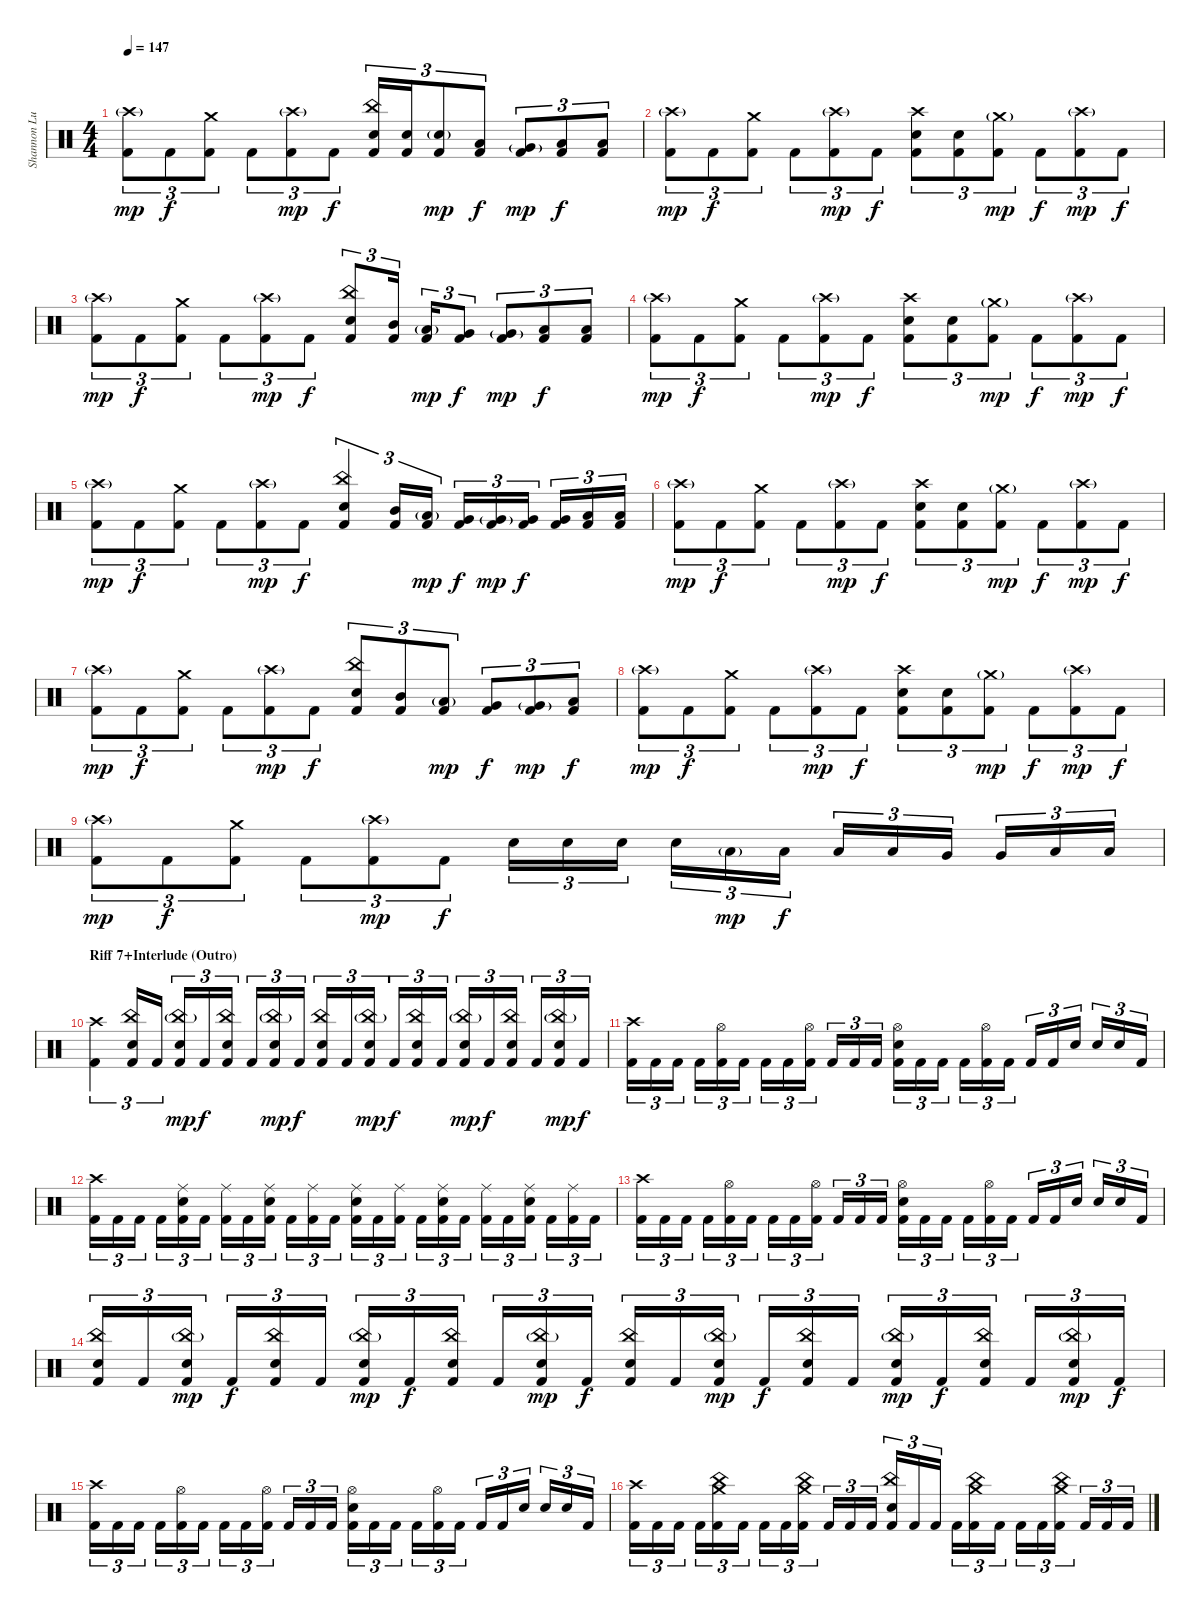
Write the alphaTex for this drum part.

\track ("Shannon Lucas (Drums)" "Shannon Lu") {instrument percussion}
\staff {score}
\articulation defaults
\ts (4 4)
\tempo 147
\clef neutral
\ks c
("Crash high (hit)"{g} "Kick (hit) 2").8{tu (3 2) dy mp} "Kick (hit) 2".8{tu (3 2) dy f} ("Crash medium (hit)" "Kick (hit) 2").8{tu (3 2)} "Kick (hit) 2".8{tu (3 2)} ("Crash high (hit)"{g} "Kick (hit) 2").8{tu (3 2) dy mp} "Kick (hit) 2".8{tu (3 2) dy f} ("China (hit)" "Snare (hit) 2" "Kick (hit) 2").16{tu (3 2)} ("Snare (hit) 2" "Kick (hit) 2").16{tu (3 2)} ("Snare (hit) 2"{g} "Kick (hit) 2").8{tu (3 2) dy mp} ("Low Tom (hit)" "Kick (hit) 2").8{tu (3 2) dy f} ("Very Low Tom (hit)"{g} "Kick (hit) 2").8{tu (3 2) dy mp} ("Low Floor Tom (hit)" "Kick (hit) 2").8{tu (3 2) dy f} ("Low Floor Tom (hit)" "Kick (hit) 2").8{tu (3 2)} |
("Crash high (hit)"{g} "Kick (hit) 2").8{tu (3 2) dy mp} "Kick (hit) 2".8{tu (3 2) dy f} ("Crash medium (hit)" "Kick (hit) 2").8{tu (3 2)} "Kick (hit) 2".8{tu (3 2)} ("Crash high (hit)"{g} "Kick (hit) 2").8{tu (3 2) dy mp} "Kick (hit) 2".8{tu (3 2) dy f} ("Crash high (hit)" "Snare (hit) 2" "Kick (hit) 2").8{tu (3 2)} ("Snare (hit) 2" "Kick (hit) 2").8{tu (3 2)} ("Crash medium (hit)"{g} "Kick (hit) 2").8{tu (3 2) dy mp} "Kick (hit) 2".8{tu (3 2) dy f} ("Crash high (hit)"{g} "Kick (hit) 2").8{tu (3 2) dy mp} "Kick (hit) 2".8{tu (3 2) dy f} |
("Crash high (hit)"{g} "Kick (hit) 2").8{tu (3 2) dy mp} "Kick (hit) 2".8{tu (3 2) dy f} ("Crash medium (hit)" "Kick (hit) 2").8{tu (3 2)} "Kick (hit) 2".8{tu (3 2)} ("Crash high (hit)"{g} "Kick (hit) 2").8{tu (3 2) dy mp} "Kick (hit) 2".8{tu (3 2) dy f} ("China (hit)" "Snare (hit) 2" "Kick (hit) 2").8{tu (3 2)} ("Mid Tom (hit)" "Kick (hit) 2").16{tu (3 2)} ("Low Tom (hit)"{g} "Kick (hit) 2").16{tu (3 2) dy mp} ("Very Low Tom (hit)" "Kick (hit) 2").8{tu (3 2) dy f} ("Very Low Tom (hit)"{g} "Kick (hit) 2").8{tu (3 2) dy mp} ("Low Floor Tom (hit)" "Kick (hit) 2").8{tu (3 2) dy f} ("Low Floor Tom (hit)" "Kick (hit) 2").8{tu (3 2)} |
("Crash high (hit)"{g} "Kick (hit) 2").8{tu (3 2) dy mp} "Kick (hit) 2".8{tu (3 2) dy f} ("Crash medium (hit)" "Kick (hit) 2").8{tu (3 2)} "Kick (hit) 2".8{tu (3 2)} ("Crash high (hit)"{g} "Kick (hit) 2").8{tu (3 2) dy mp} "Kick (hit) 2".8{tu (3 2) dy f} ("Crash high (hit)" "Snare (hit) 2" "Kick (hit) 2").8{tu (3 2)} ("Snare (hit) 2" "Kick (hit) 2").8{tu (3 2)} ("Crash medium (hit)"{g} "Kick (hit) 2").8{tu (3 2) dy mp} "Kick (hit) 2".8{tu (3 2) dy f} ("Crash high (hit)"{g} "Kick (hit) 2").8{tu (3 2) dy mp} "Kick (hit) 2".8{tu (3 2) dy f} |
("Crash high (hit)"{g} "Kick (hit) 2").8{tu (3 2) dy mp} "Kick (hit) 2".8{tu (3 2) dy f} ("Crash medium (hit)" "Kick (hit) 2").8{tu (3 2)} "Kick (hit) 2".8{tu (3 2)} ("Crash high (hit)"{g} "Kick (hit) 2").8{tu (3 2) dy mp} "Kick (hit) 2".8{tu (3 2) dy f} ("China (hit)" "Snare (hit) 2" "Kick (hit) 2").4{tu (3 2)} ("Mid Tom (hit)" "Kick (hit) 2").16{tu (3 2)} ("Low Tom (hit)"{g} "Kick (hit) 2").16{tu (3 2) dy mp} ("Very Low Tom (hit)" "Kick (hit) 2").16{tu (3 2) dy f} ("Very Low Tom (hit)"{g} "Kick (hit) 2").16{tu (3 2) dy mp} ("Very Low Tom (hit)" "Kick (hit) 2").16{tu (3 2) dy f} ("Very Low Tom (hit)" "Kick (hit) 2").16{tu (3 2)} ("Low Floor Tom (hit)" "Kick (hit) 2").16{tu (3 2)} ("Low Floor Tom (hit)" "Kick (hit) 2").16{tu (3 2)} |
("Crash high (hit)"{g} "Kick (hit) 2").8{tu (3 2) dy mp} "Kick (hit) 2".8{tu (3 2) dy f} ("Crash medium (hit)" "Kick (hit) 2").8{tu (3 2)} "Kick (hit) 2".8{tu (3 2)} ("Crash high (hit)"{g} "Kick (hit) 2").8{tu (3 2) dy mp} "Kick (hit) 2".8{tu (3 2) dy f} ("Crash high (hit)" "Snare (hit) 2" "Kick (hit) 2").8{tu (3 2)} ("Snare (hit) 2" "Kick (hit) 2").8{tu (3 2)} ("Crash medium (hit)"{g} "Kick (hit) 2").8{tu (3 2) dy mp} "Kick (hit) 2".8{tu (3 2) dy f} ("Crash high (hit)"{g} "Kick (hit) 2").8{tu (3 2) dy mp} "Kick (hit) 2".8{tu (3 2) dy f} |
("Crash high (hit)"{g} "Kick (hit) 2").8{tu (3 2) dy mp} "Kick (hit) 2".8{tu (3 2) dy f} ("Crash medium (hit)" "Kick (hit) 2").8{tu (3 2)} "Kick (hit) 2".8{tu (3 2)} ("Crash high (hit)"{g} "Kick (hit) 2").8{tu (3 2) dy mp} "Kick (hit) 2".8{tu (3 2) dy f} ("China (hit)" "Snare (hit) 2" "Kick (hit) 2").8{tu (3 2)} ("Mid Tom (hit)" "Kick (hit) 2").8{tu (3 2)} ("Low Tom (hit)"{g} "Kick (hit) 2").8{tu (3 2) dy mp} ("Very Low Tom (hit)" "Kick (hit) 2").8{tu (3 2) dy f} ("Very Low Tom (hit)"{g} "Kick (hit) 2").8{tu (3 2) dy mp} ("Low Floor Tom (hit)" "Kick (hit) 2").8{tu (3 2) dy f} |
("Crash high (hit)"{g} "Kick (hit) 2").8{tu (3 2) dy mp} "Kick (hit) 2".8{tu (3 2) dy f} ("Crash medium (hit)" "Kick (hit) 2").8{tu (3 2)} "Kick (hit) 2".8{tu (3 2)} ("Crash high (hit)"{g} "Kick (hit) 2").8{tu (3 2) dy mp} "Kick (hit) 2".8{tu (3 2) dy f} ("Crash high (hit)" "Snare (hit) 2" "Kick (hit) 2").8{tu (3 2)} ("Snare (hit) 2" "Kick (hit) 2").8{tu (3 2)} ("Crash medium (hit)"{g} "Kick (hit) 2").8{tu (3 2) dy mp} "Kick (hit) 2".8{tu (3 2) dy f} ("Crash high (hit)"{g} "Kick (hit) 2").8{tu (3 2) dy mp} "Kick (hit) 2".8{tu (3 2) dy f} |
("Crash high (hit)"{g} "Kick (hit) 2").8{tu (3 2) dy mp} "Kick (hit) 2".8{tu (3 2) dy f} ("Crash medium (hit)" "Kick (hit) 2").8{tu (3 2)} "Kick (hit) 2".8{tu (3 2)} ("Crash high (hit)"{g} "Kick (hit) 2").8{tu (3 2) dy mp} "Kick (hit) 2".8{tu (3 2) dy f} "Snare (hit) 2".16{tu (3 2)} "Snare (hit) 2".16{tu (3 2)} "Snare (hit) 2".16{tu (3 2)} "Snare (hit) 2".16{tu (3 2)} "Low Tom (hit)"{g}.16{tu (3 2) dy mp} "Low Tom (hit)".16{tu (3 2) dy f} "Low Tom (hit)".16{tu (3 2)} "Low Tom (hit)".16{tu (3 2)} "Very Low Tom (hit)".16{tu (3 2)} "Very Low Tom (hit)".16{tu (3 2)} "Low Floor Tom (hit)".16{tu (3 2)} "Low Floor Tom (hit)".16{tu (3 2)} |
\section ("" "Riff 7+Interlude (Outro)")
("Crash high (hit)" "Kick (hit) 2").4{tu (3 2)} ("China (hit)" "Snare (hit) 2" "Kick (hit) 2").16{tu (3 2)} "Kick (hit) 2".16{tu (3 2)} ("China (hit)"{g} "Snare (hit) 2" "Kick (hit) 2").16{tu (3 2) dy mp} "Kick (hit) 2".16{tu (3 2) dy f} ("China (hit)" "Snare (hit) 2" "Kick (hit) 2").16{tu (3 2)} "Kick (hit) 2".16{tu (3 2)} ("China (hit)"{g} "Snare (hit) 2" "Kick (hit) 2").16{tu (3 2) dy mp} "Kick (hit) 2".16{tu (3 2) dy f} ("China (hit)" "Snare (hit) 2" "Kick (hit) 2").16{tu (3 2)} "Kick (hit) 2".16{tu (3 2)} ("China (hit)"{g} "Snare (hit) 2" "Kick (hit) 2").16{tu (3 2) dy mp} "Kick (hit) 2".16{tu (3 2) dy f} ("China (hit)" "Snare (hit) 2" "Kick (hit) 2").16{tu (3 2)} "Kick (hit) 2".16{tu (3 2)} ("China (hit)"{g} "Snare (hit) 2" "Kick (hit) 2").16{tu (3 2) dy mp} "Kick (hit) 2".16{tu (3 2) dy f} ("China (hit)" "Snare (hit) 2" "Kick (hit) 2").16{tu (3 2)} "Kick (hit) 2".16{tu (3 2)} ("China (hit)"{g} "Snare (hit) 2" "Kick (hit) 2").16{tu (3 2) dy mp} "Kick (hit) 2".16{tu (3 2) dy f} |
("Crash high (hit)" "Kick (hit) 2").16{tu (3 2)} "Kick (hit) 2".16{tu (3 2)} "Kick (hit) 2".16{tu (3 2)} "Kick (hit) 2".16{tu (3 2)} ("Hi-Hat (open)" "Kick (hit) 2").16{tu (3 2)} "Kick (hit) 2".16{tu (3 2)} "Kick (hit) 2".16{tu (3 2)} "Kick (hit) 2".16{tu (3 2)} ("Hi-Hat (open)" "Kick (hit) 2").16{tu (3 2)} "Kick (hit) 2".16{tu (3 2)} "Kick (hit) 2".16{tu (3 2)} "Kick (hit) 2".16{tu (3 2)} ("Hi-Hat (open)" "Snare (hit) 2" "Kick (hit) 2").16{tu (3 2)} "Kick (hit) 2".16{tu (3 2)} "Kick (hit) 2".16{tu (3 2)} "Kick (hit) 2".16{tu (3 2)} ("Hi-Hat (open)" "Kick (hit) 2").16{tu (3 2)} "Kick (hit) 2".16{tu (3 2)} "Kick (hit) 2".16{tu (3 2)} "Kick (hit) 2".16{tu (3 2)} "Snare (hit) 2".16{tu (3 2)} "Snare (hit) 2".16{tu (3 2)} "Snare (hit) 2".16{tu (3 2)} "Kick (hit) 2".16{tu (3 2)} |
("Crash high (hit)" "Kick (hit) 2").16{tu (3 2)} "Kick (hit) 2".16{tu (3 2)} "Kick (hit) 2".16{tu (3 2)} "Kick (hit) 2".16{tu (3 2)} ("Ride (middle)" "Snare (hit) 2" "Kick (hit) 2").16{tu (3 2)} "Kick (hit) 2".16{tu (3 2)} ("Ride (middle)" "Kick (hit) 2").16{tu (3 2)} "Kick (hit) 2".16{tu (3 2)} ("Ride (middle)" "Snare (hit) 2" "Kick (hit) 2").16{tu (3 2)} "Kick (hit) 2".16{tu (3 2)} ("Ride (middle)" "Kick (hit) 2").16{tu (3 2)} "Kick (hit) 2".16{tu (3 2)} ("Ride (middle)" "Snare (hit) 2" "Kick (hit) 2").16{tu (3 2)} "Kick (hit) 2".16{tu (3 2)} ("Ride (middle)" "Kick (hit) 2").16{tu (3 2)} "Kick (hit) 2".16{tu (3 2)} ("Ride (middle)" "Snare (hit) 2" "Kick (hit) 2").16{tu (3 2)} "Kick (hit) 2".16{tu (3 2)} ("Ride (middle)" "Kick (hit) 2").16{tu (3 2)} "Kick (hit) 2".16{tu (3 2)} ("Ride (middle)" "Snare (hit) 2" "Kick (hit) 2").16{tu (3 2)} "Kick (hit) 2".16{tu (3 2)} ("Ride (middle)" "Kick (hit) 2").16{tu (3 2)} "Kick (hit) 2".16{tu (3 2)} |
("Crash high (hit)" "Kick (hit) 2").16{tu (3 2)} "Kick (hit) 2".16{tu (3 2)} "Kick (hit) 2".16{tu (3 2)} "Kick (hit) 2".16{tu (3 2)} ("Hi-Hat (open)" "Kick (hit) 2").16{tu (3 2)} "Kick (hit) 2".16{tu (3 2)} "Kick (hit) 2".16{tu (3 2)} "Kick (hit) 2".16{tu (3 2)} ("Hi-Hat (open)" "Kick (hit) 2").16{tu (3 2)} "Kick (hit) 2".16{tu (3 2)} "Kick (hit) 2".16{tu (3 2)} "Kick (hit) 2".16{tu (3 2)} ("Hi-Hat (open)" "Snare (hit) 2" "Kick (hit) 2").16{tu (3 2)} "Kick (hit) 2".16{tu (3 2)} "Kick (hit) 2".16{tu (3 2)} "Kick (hit) 2".16{tu (3 2)} ("Hi-Hat (open)" "Kick (hit) 2").16{tu (3 2)} "Kick (hit) 2".16{tu (3 2)} "Kick (hit) 2".16{tu (3 2)} "Kick (hit) 2".16{tu (3 2)} "Snare (hit) 2".16{tu (3 2)} "Snare (hit) 2".16{tu (3 2)} "Snare (hit) 2".16{tu (3 2)} "Kick (hit) 2".16{tu (3 2)} |
("China (hit)" "Snare (hit) 2" "Kick (hit) 2").16{tu (3 2)} "Kick (hit) 2".16{tu (3 2)} ("China (hit)"{g} "Snare (hit) 2" "Kick (hit) 2").16{tu (3 2) dy mp} "Kick (hit) 2".16{tu (3 2) dy f} ("China (hit)" "Snare (hit) 2" "Kick (hit) 2").16{tu (3 2)} "Kick (hit) 2".16{tu (3 2)} ("China (hit)"{g} "Snare (hit) 2" "Kick (hit) 2").16{tu (3 2) dy mp} "Kick (hit) 2".16{tu (3 2) dy f} ("China (hit)" "Snare (hit) 2" "Kick (hit) 2").16{tu (3 2)} "Kick (hit) 2".16{tu (3 2)} ("China (hit)"{g} "Snare (hit) 2" "Kick (hit) 2").16{tu (3 2) dy mp} "Kick (hit) 2".16{tu (3 2) dy f} ("China (hit)" "Snare (hit) 2" "Kick (hit) 2").16{tu (3 2)} "Kick (hit) 2".16{tu (3 2)} ("China (hit)"{g} "Snare (hit) 2" "Kick (hit) 2").16{tu (3 2) dy mp} "Kick (hit) 2".16{tu (3 2) dy f} ("China (hit)" "Snare (hit) 2" "Kick (hit) 2").16{tu (3 2)} "Kick (hit) 2".16{tu (3 2)} ("China (hit)"{g} "Snare (hit) 2" "Kick (hit) 2").16{tu (3 2) dy mp} "Kick (hit) 2".16{tu (3 2) dy f} ("China (hit)" "Snare (hit) 2" "Kick (hit) 2").16{tu (3 2)} "Kick (hit) 2".16{tu (3 2)} ("China (hit)"{g} "Snare (hit) 2" "Kick (hit) 2").16{tu (3 2) dy mp} "Kick (hit) 2".16{tu (3 2) dy f} |
("Crash high (hit)" "Kick (hit) 2").16{tu (3 2)} "Kick (hit) 2".16{tu (3 2)} "Kick (hit) 2".16{tu (3 2)} "Kick (hit) 2".16{tu (3 2)} ("Hi-Hat (open)" "Kick (hit) 2").16{tu (3 2)} "Kick (hit) 2".16{tu (3 2)} "Kick (hit) 2".16{tu (3 2)} "Kick (hit) 2".16{tu (3 2)} ("Hi-Hat (open)" "Kick (hit) 2").16{tu (3 2)} "Kick (hit) 2".16{tu (3 2)} "Kick (hit) 2".16{tu (3 2)} "Kick (hit) 2".16{tu (3 2)} ("Hi-Hat (open)" "Snare (hit) 2" "Kick (hit) 2").16{tu (3 2)} "Kick (hit) 2".16{tu (3 2)} "Kick (hit) 2".16{tu (3 2)} "Kick (hit) 2".16{tu (3 2)} ("Hi-Hat (open)" "Kick (hit) 2").16{tu (3 2)} "Kick (hit) 2".16{tu (3 2)} "Kick (hit) 2".16{tu (3 2)} "Kick (hit) 2".16{tu (3 2)} "Snare (hit) 2".16{tu (3 2)} "Snare (hit) 2".16{tu (3 2)} "Snare (hit) 2".16{tu (3 2)} "Kick (hit) 2".16{tu (3 2)} |
("Crash high (hit)" "Kick (hit) 2").16{tu (3 2)} "Kick (hit) 2".16{tu (3 2)} "Kick (hit) 2".16{tu (3 2)} "Kick (hit) 2".16{tu (3 2)} ("Crash medium (hit)" "China (hit)" "Kick (hit) 2").16{tu (3 2)} "Kick (hit) 2".16{tu (3 2)} "Kick (hit) 2".16{tu (3 2)} "Kick (hit) 2".16{tu (3 2)} ("Crash medium (hit)" "China (hit)" "Kick (hit) 2").16{tu (3 2)} "Kick (hit) 2".16{tu (3 2)} "Kick (hit) 2".16{tu (3 2)} "Kick (hit) 2".16{tu (3 2)} ("Snare (hit) 2" "China (hit)" "Kick (hit) 2").16{tu (3 2)} "Kick (hit) 2".16{tu (3 2)} "Kick (hit) 2".16{tu (3 2)} "Kick (hit) 2".16{tu (3 2)} ("Crash medium (hit)" "China (hit)" "Kick (hit) 2").16{tu (3 2)} "Kick (hit) 2".16{tu (3 2)} "Kick (hit) 2".16{tu (3 2)} "Kick (hit) 2".16{tu (3 2)} ("Crash medium (hit)" "China (hit)" "Kick (hit) 2").16{tu (3 2)} "Kick (hit) 2".16{tu (3 2)} "Kick (hit) 2".16{tu (3 2)} "Kick (hit) 2".16{tu (3 2)}
